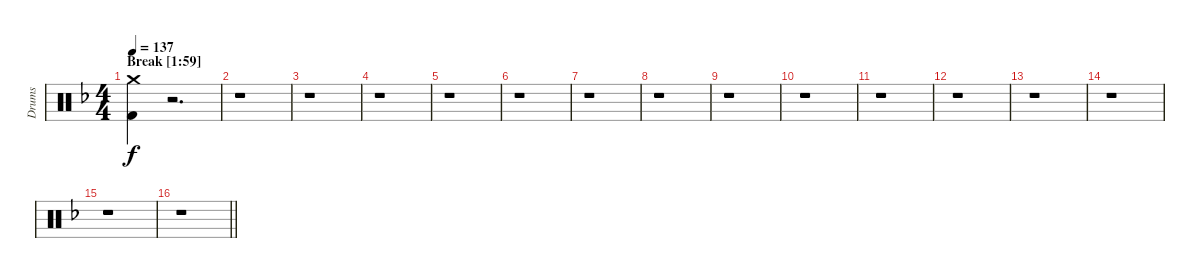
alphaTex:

\track ("Drums" "Drums") {instrument percussion}
\staff {score}
\articulation defaults
\ts (4 4)
\section ("" "Break [1:59]")
\tempo 137
\clef neutral
\ks dminor
("Crash medium (hit)" "Kick (hit) 2").4{dy f} r.2{d} |
r.1 |
r.1 |
r.1 |
r.1 |
r.1 |
r.1 |
r.1 |
r.1 |
r.1 |
r.1 |
r.1 |
r.1 |
r.1 |
r.1 |
\barLineRight lightlight
r.1
